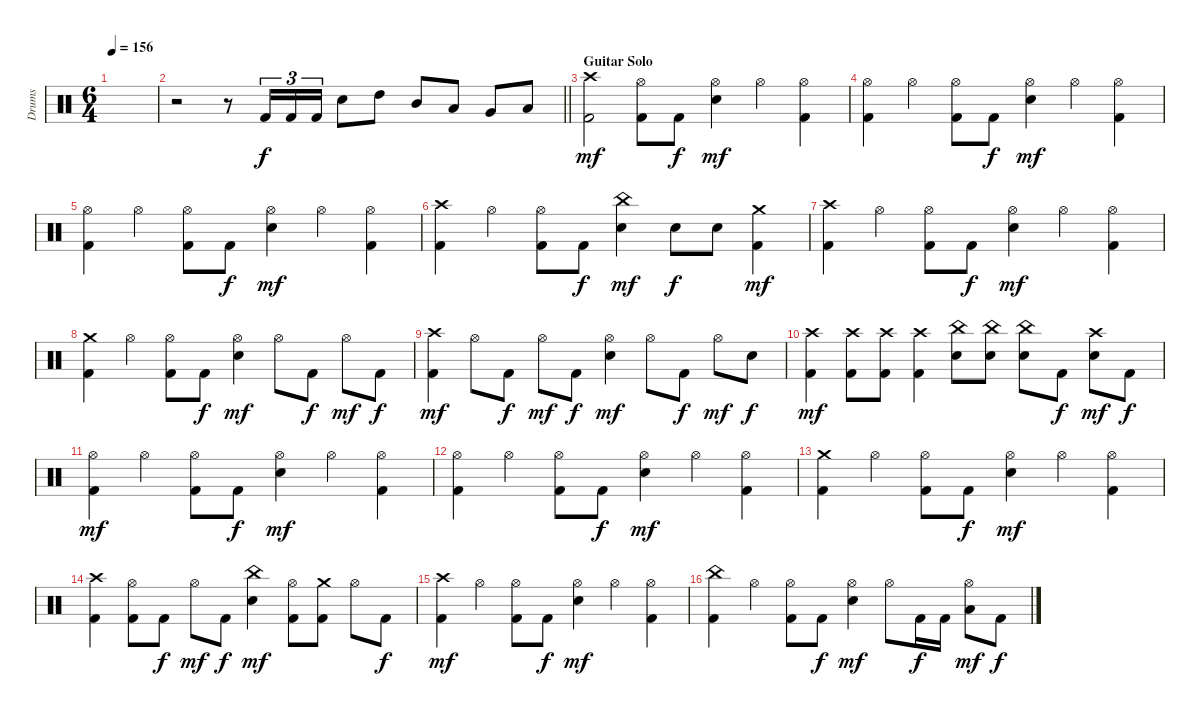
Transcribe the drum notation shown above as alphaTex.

\track ("Drums" "Drums") {instrument percussion}
\staff {score}
\articulation defaults
\ts (6 4)
\tempo 156
\clef neutral
\ks c
|
\barLineRight lightlight
r.2 r.8 "Kick (hit) 2".16{tu (3 2) dy f} "Kick (hit) 2".16{tu (3 2)} "Kick (hit) 2".16{tu (3 2)} "Electric Snare (hit)".8 "High Tom (hit)".8 "Mid Tom (hit)".8 "Low Tom (hit)".8 "Very Low Tom (hit)".8 "Low Floor Tom (hit)".8 |
\section ("" "Guitar Solo")
("Crash high (hit)" "Kick (hit) 2").2{dy mf} ("Hi-Hat (open)" "Kick (hit) 2").8 "Kick (hit) 2".8{dy f} ("Hi-Hat (open)" "Electric Snare (hit)").4{dy mf} "Hi-Hat (open)".4 ("Hi-Hat (open)" "Kick (hit) 2").4 |
("Hi-Hat (open)" "Kick (hit) 2").4 "Hi-Hat (open)".4 ("Hi-Hat (open)" "Kick (hit) 2").8 "Kick (hit) 2".8{dy f} ("Hi-Hat (open)" "Electric Snare (hit)").4{dy mf} "Hi-Hat (open)".4 ("Hi-Hat (open)" "Kick (hit) 2").4 |
("Hi-Hat (open)" "Kick (hit) 2").4 "Hi-Hat (open)".4 ("Hi-Hat (open)" "Kick (hit) 2").8 "Kick (hit) 2".8{dy f} ("Hi-Hat (open)" "Electric Snare (hit)").4{dy mf} "Hi-Hat (open)".4 ("Hi-Hat (open)" "Kick (hit) 2").4 |
("Crash high (hit)" "Kick (hit) 2").4 "Hi-Hat (open)".4 ("Hi-Hat (open)" "Kick (hit) 2").8 "Kick (hit) 2".8{dy f} ("China (hit)" "Electric Snare (hit)").4{dy mf} "Electric Snare (hit)".8{dy f} "Electric Snare (hit)".8 ("Crash medium (hit)" "Kick (hit) 2").4{dy mf} |
("Crash high (hit)" "Kick (hit) 2").4 "Hi-Hat (open)".4 ("Hi-Hat (open)" "Kick (hit) 2").8 "Kick (hit) 2".8{dy f} ("Hi-Hat (open)" "Electric Snare (hit)").4{dy mf} "Hi-Hat (open)".4 ("Hi-Hat (open)" "Kick (hit) 2").4 |
("Crash medium (hit)" "Kick (hit) 2").4 "Hi-Hat (open)".4 ("Hi-Hat (open)" "Kick (hit) 2").8 "Kick (hit) 2".8{dy f} ("Hi-Hat (open)" "Electric Snare (hit)").4{dy mf} "Hi-Hat (open)".8 "Kick (hit) 2".8{dy f} "Hi-Hat (open)".8{dy mf} "Kick (hit) 2".8{dy f} |
("Crash high (hit)" "Kick (hit) 2").4{dy mf} "Hi-Hat (open)".8 "Kick (hit) 2".8{dy f} "Hi-Hat (open)".8{dy mf} "Kick (hit) 2".8{dy f} ("Hi-Hat (open)" "Electric Snare (hit)").4{dy mf} "Hi-Hat (open)".8 "Kick (hit) 2".8{dy f} "Hi-Hat (open)".8{dy mf} "Electric Snare (hit)".8{dy f} |
("Crash high (hit)" "Kick (hit) 2").4{dy mf} ("Crash high (hit)" "Kick (hit) 2").8 ("Crash high (hit)" "Kick (hit) 2").8 ("Crash high (hit)" "Kick (hit) 2").4 ("China (hit)" "Electric Snare (hit)").8 ("China (hit)" "Electric Snare (hit)").8 ("China (hit)" "Electric Snare (hit)").8 "Kick (hit) 2".8{dy f} ("Crash high (hit)" "Electric Snare (hit)").8{dy mf} "Kick (hit) 2".8{dy f} |
("Hi-Hat (open)" "Kick (hit) 2").4{dy mf} "Hi-Hat (open)".4 ("Hi-Hat (open)" "Kick (hit) 2").8 "Kick (hit) 2".8{dy f} ("Hi-Hat (open)" "Electric Snare (hit)").4{dy mf} "Hi-Hat (open)".4 ("Hi-Hat (open)" "Kick (hit) 2").4 |
("Hi-Hat (open)" "Kick (hit) 2").4 "Hi-Hat (open)".4 ("Hi-Hat (open)" "Kick (hit) 2").8 "Kick (hit) 2".8{dy f} ("Hi-Hat (open)" "Electric Snare (hit)").4{dy mf} "Hi-Hat (open)".4 ("Hi-Hat (open)" "Kick (hit) 2").4 |
("Crash medium (hit)" "Kick (hit) 2").4 "Hi-Hat (open)".4 ("Hi-Hat (open)" "Kick (hit) 2").8 "Kick (hit) 2".8{dy f} ("Hi-Hat (open)" "Electric Snare (hit)").4{dy mf} "Hi-Hat (open)".4 ("Hi-Hat (open)" "Kick (hit) 2").4 |
("Crash high (hit)" "Kick (hit) 2").4 ("Hi-Hat (open)" "Kick (hit) 2").8 "Kick (hit) 2".8{dy f} "Hi-Hat (open)".8{dy mf} "Kick (hit) 2".8{dy f} ("China (hit)" "Electric Snare (hit)").4{dy mf} ("Hi-Hat (open)" "Kick (hit) 2").8 ("Crash medium (hit)" "Kick (hit) 2").8 "Hi-Hat (open)".8 "Kick (hit) 2".8{dy f} |
("Crash high (hit)" "Kick (hit) 2").4{dy mf} "Hi-Hat (open)".4 ("Hi-Hat (open)" "Kick (hit) 2").8 "Kick (hit) 2".8{dy f} ("Hi-Hat (open)" "Electric Snare (hit)").4{dy mf} "Hi-Hat (open)".4 ("Hi-Hat (open)" "Kick (hit) 2").4 |
("China (hit)" "Kick (hit) 2").4 "Hi-Hat (open)".4 ("Hi-Hat (open)" "Kick (hit) 2").8 "Kick (hit) 2".8{dy f} ("Hi-Hat (open)" "Electric Snare (hit)").4{dy mf} "Hi-Hat (open)".8 "Kick (hit) 2".16{dy f} "Kick (hit) 2".16 ("Hi-Hat (open)" "Low Floor Tom (hit)").8{dy mf} "Kick (hit) 2".8{dy f}
